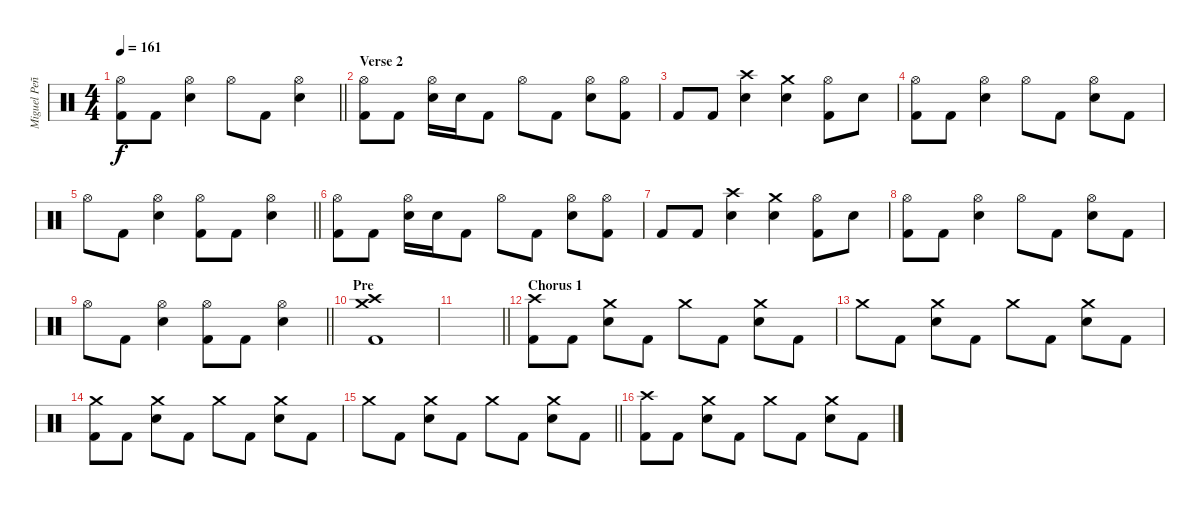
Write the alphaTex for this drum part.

\track ("Miguel Peñas" "Miguel Peñ") {instrument percussion}
\staff {score}
\articulation defaults
\ts (4 4)
\tempo 161
\clef neutral
\barLineRight lightlight
\ks c
("Hi-Hat (open)" "Kick (hit) 2").8{dy f} "Kick (hit) 2".8 ("Hi-Hat (open)" "Electric Snare (hit)").4 "Hi-Hat (open)".8 "Kick (hit) 2".8 ("Hi-Hat (open)" "Electric Snare (hit)").4 |
\section ("" "Verse 2")
("Hi-Hat (open)" "Kick (hit) 2").8 "Kick (hit) 2".8 ("Hi-Hat (open)" "Electric Snare (hit)").16 "Electric Snare (hit)".16 "Kick (hit) 2".8 "Hi-Hat (open)".8 "Kick (hit) 2".8 ("Hi-Hat (open)" "Electric Snare (hit)").8 ("Hi-Hat (open)" "Kick (hit) 2").8 |
"Kick (hit) 2".8 "Kick (hit) 2".8 ("Crash high (hit)" "Electric Snare (hit)").4 ("Crash medium (hit)" "Electric Snare (hit)").4 ("Hi-Hat (open)" "Kick (hit) 2").8 "Electric Snare (hit)".8 |
("Hi-Hat (open)" "Kick (hit) 2").8 "Kick (hit) 2".8 ("Hi-Hat (open)" "Electric Snare (hit)").4 "Hi-Hat (open)".8 "Kick (hit) 2".8 ("Hi-Hat (open)" "Electric Snare (hit)").8 "Kick (hit) 2".8 |
\barLineRight lightlight "Hi-Hat (open)".8 "Kick (hit) 2".8
("Hi-Hat (open)" "Electric Snare (hit)").4 ("Hi-Hat (open)" "Kick (hit) 2").8 "Kick (hit) 2".8 ("Hi-Hat (open)" "Electric Snare (hit)").4 |
("Hi-Hat (open)" "Kick (hit) 2").8 "Kick (hit) 2".8 ("Hi-Hat (open)" "Electric Snare (hit)").16 "Electric Snare (hit)".16 "Kick (hit) 2".8 "Hi-Hat (open)".8 "Kick (hit) 2".8 ("Hi-Hat (open)" "Electric Snare (hit)").8 ("Hi-Hat (open)" "Kick (hit) 2").8 |
"Kick (hit) 2".8 "Kick (hit) 2".8 ("Crash high (hit)" "Electric Snare (hit)").4 ("Crash medium (hit)" "Electric Snare (hit)").4 ("Hi-Hat (open)" "Kick (hit) 2").8 "Electric Snare (hit)".8 |
("Hi-Hat (open)" "Kick (hit) 2").8 "Kick (hit) 2".8 ("Hi-Hat (open)" "Electric Snare (hit)").4 "Hi-Hat (open)".8 "Kick (hit) 2".8 ("Hi-Hat (open)" "Electric Snare (hit)").8 "Kick (hit) 2".8 |
\barLineRight lightlight "Hi-Hat (open)".8 "Kick (hit) 2".8
("Hi-Hat (open)" "Electric Snare (hit)").4 ("Hi-Hat (open)" "Kick (hit) 2").8 "Kick (hit) 2".8 ("Hi-Hat (open)" "Electric Snare (hit)").4 |
\section ("" "Pre")
("Crash high (hit)" "Crash medium (hit)" "Kick (hit) 2").1 |
\barLineRight lightlight
|
\section ("" "Chorus 1")
("Crash high (hit)" "Kick (hit) 2").8 "Kick (hit) 2".8 ("Crash medium (hit)" "Electric Snare (hit)").8 "Kick (hit) 2".8 "Crash medium (hit)".8 "Kick (hit) 2".8 ("Crash medium (hit)" "Electric Snare (hit)").8 "Kick (hit) 2".8 |
"Crash medium (hit)".8 "Kick (hit) 2".8 ("Crash medium (hit)" "Electric Snare (hit)").8 "Kick (hit) 2".8 "Crash medium (hit)".8 "Kick (hit) 2".8 ("Crash medium (hit)" "Electric Snare (hit)").8 "Kick (hit) 2".8 |
("Crash medium (hit)" "Kick (hit) 2").8 "Kick (hit) 2".8 ("Crash medium (hit)" "Electric Snare (hit)").8 "Kick (hit) 2".8 "Crash medium (hit)".8 "Kick (hit) 2".8 ("Crash medium (hit)" "Electric Snare (hit)").8 "Kick (hit) 2".8 |
\barLineRight lightlight "Crash medium (hit)".8 "Kick (hit) 2".8
("Crash medium (hit)" "Electric Snare (hit)").8 "Kick (hit) 2".8 "Crash medium (hit)".8 "Kick (hit) 2".8 ("Crash medium (hit)" "Electric Snare (hit)").8 "Kick (hit) 2".8 |
("Crash high (hit)" "Kick (hit) 2").8 "Kick (hit) 2".8 ("Crash medium (hit)" "Electric Snare (hit)").8 "Kick (hit) 2".8 "Crash medium (hit)".8 "Kick (hit) 2".8 ("Crash medium (hit)" "Electric Snare (hit)").8 "Kick (hit) 2".8
